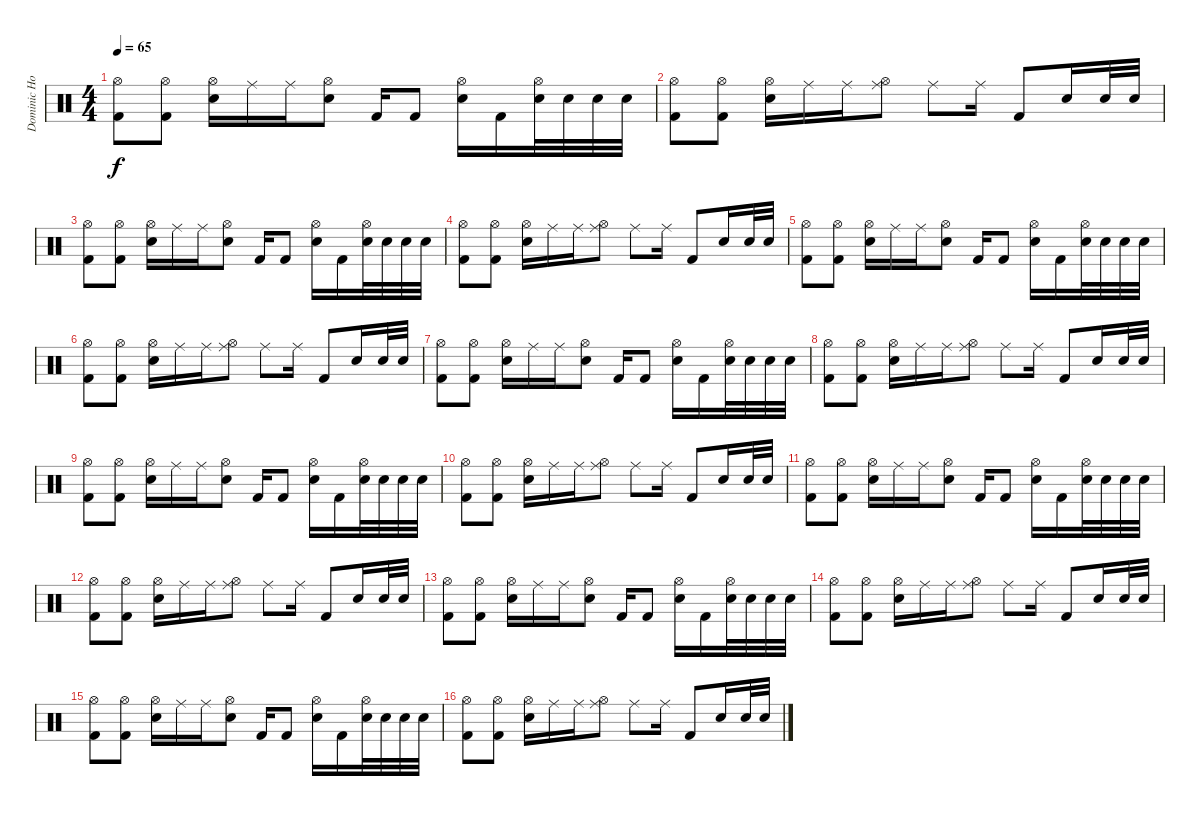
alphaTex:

\track ("Dominic Howard" "Dominic Ho") {instrument percussion}
\staff {score}
\articulation defaults
\ts (4 4)
\tempo 65
\clef neutral
\ks c
("Hi-Hat (open)" "Kick (hit) 2").8{dy f} ("Hi-Hat (open)" "Kick (hit) 2").8 ("Hi-Hat (open)" "Snare (hit) 2").16 "Ride (middle)".16 "Ride (middle)".16 ("Hi-Hat (open)" "Snare (hit) 2").8 "Kick (hit) 2".16 "Kick (hit) 2".8 ("Hi-Hat (open)" "Snare (hit) 2").16 "Kick (hit) 2".16 ("Hi-Hat (open)" "Snare (hit) 2").32 "Snare (hit) 2".32 "Snare (hit) 2".32 "Snare (hit) 2".32 |
("Hi-Hat (open)" "Kick (hit) 2").8 ("Hi-Hat (open)" "Kick (hit) 2").8 ("Hi-Hat (open)" "Snare (hit) 2").16 "Ride (middle)".16 "Ride (middle)".16 ("Hi-Hat (open)" "Ride (middle)").8 "Ride (middle)".8 "Ride (middle)".16 "Kick (hit) 2".8 "Snare (hit) 2".16 "Snare (hit) 2".32 "Snare (hit) 2".32 |
("Hi-Hat (open)" "Kick (hit) 2").8 ("Hi-Hat (open)" "Kick (hit) 2").8 ("Hi-Hat (open)" "Snare (hit) 2").16 "Ride (middle)".16 "Ride (middle)".16 ("Hi-Hat (open)" "Snare (hit) 2").8 "Kick (hit) 2".16 "Kick (hit) 2".8 ("Hi-Hat (open)" "Snare (hit) 2").16 "Kick (hit) 2".16 ("Hi-Hat (open)" "Snare (hit) 2").32 "Snare (hit) 2".32 "Snare (hit) 2".32 "Snare (hit) 2".32 |
("Hi-Hat (open)" "Kick (hit) 2").8 ("Hi-Hat (open)" "Kick (hit) 2").8 ("Hi-Hat (open)" "Snare (hit) 2").16 "Ride (middle)".16 "Ride (middle)".16 ("Hi-Hat (open)" "Ride (middle)").8 "Ride (middle)".8 "Ride (middle)".16 "Kick (hit) 2".8 "Snare (hit) 2".16 "Snare (hit) 2".32 "Snare (hit) 2".32 |
("Hi-Hat (open)" "Kick (hit) 2").8 ("Hi-Hat (open)" "Kick (hit) 2").8 ("Hi-Hat (open)" "Snare (hit) 2").16 "Ride (middle)".16 "Ride (middle)".16 ("Hi-Hat (open)" "Snare (hit) 2").8 "Kick (hit) 2".16 "Kick (hit) 2".8 ("Hi-Hat (open)" "Snare (hit) 2").16 "Kick (hit) 2".16 ("Hi-Hat (open)" "Snare (hit) 2").32 "Snare (hit) 2".32 "Snare (hit) 2".32 "Snare (hit) 2".32 |
("Hi-Hat (open)" "Kick (hit) 2").8 ("Hi-Hat (open)" "Kick (hit) 2").8 ("Hi-Hat (open)" "Snare (hit) 2").16 "Ride (middle)".16 "Ride (middle)".16 ("Hi-Hat (open)" "Ride (middle)").8 "Ride (middle)".8 "Ride (middle)".16 "Kick (hit) 2".8 "Snare (hit) 2".16 "Snare (hit) 2".32 "Snare (hit) 2".32 |
("Hi-Hat (open)" "Kick (hit) 2").8 ("Hi-Hat (open)" "Kick (hit) 2").8 ("Hi-Hat (open)" "Snare (hit) 2").16 "Ride (middle)".16 "Ride (middle)".16 ("Hi-Hat (open)" "Snare (hit) 2").8 "Kick (hit) 2".16 "Kick (hit) 2".8 ("Hi-Hat (open)" "Snare (hit) 2").16 "Kick (hit) 2".16 ("Hi-Hat (open)" "Snare (hit) 2").32 "Snare (hit) 2".32 "Snare (hit) 2".32 "Snare (hit) 2".32 |
("Hi-Hat (open)" "Kick (hit) 2").8 ("Hi-Hat (open)" "Kick (hit) 2").8 ("Hi-Hat (open)" "Snare (hit) 2").16 "Ride (middle)".16 "Ride (middle)".16 ("Hi-Hat (open)" "Ride (middle)").8 "Ride (middle)".8 "Ride (middle)".16 "Kick (hit) 2".8 "Snare (hit) 2".16 "Snare (hit) 2".32 "Snare (hit) 2".32 |
("Hi-Hat (open)" "Kick (hit) 2").8 ("Hi-Hat (open)" "Kick (hit) 2").8 ("Hi-Hat (open)" "Snare (hit) 2").16 "Ride (middle)".16 "Ride (middle)".16 ("Hi-Hat (open)" "Snare (hit) 2").8 "Kick (hit) 2".16 "Kick (hit) 2".8 ("Hi-Hat (open)" "Snare (hit) 2").16 "Kick (hit) 2".16 ("Hi-Hat (open)" "Snare (hit) 2").32 "Snare (hit) 2".32 "Snare (hit) 2".32 "Snare (hit) 2".32 |
("Hi-Hat (open)" "Kick (hit) 2").8 ("Hi-Hat (open)" "Kick (hit) 2").8 ("Hi-Hat (open)" "Snare (hit) 2").16 "Ride (middle)".16 "Ride (middle)".16 ("Hi-Hat (open)" "Ride (middle)").8 "Ride (middle)".8 "Ride (middle)".16 "Kick (hit) 2".8 "Snare (hit) 2".16 "Snare (hit) 2".32 "Snare (hit) 2".32 |
("Hi-Hat (open)" "Kick (hit) 2").8 ("Hi-Hat (open)" "Kick (hit) 2").8 ("Hi-Hat (open)" "Snare (hit) 2").16 "Ride (middle)".16 "Ride (middle)".16 ("Hi-Hat (open)" "Snare (hit) 2").8 "Kick (hit) 2".16 "Kick (hit) 2".8 ("Hi-Hat (open)" "Snare (hit) 2").16 "Kick (hit) 2".16 ("Hi-Hat (open)" "Snare (hit) 2").32 "Snare (hit) 2".32 "Snare (hit) 2".32 "Snare (hit) 2".32 |
("Hi-Hat (open)" "Kick (hit) 2").8 ("Hi-Hat (open)" "Kick (hit) 2").8 ("Hi-Hat (open)" "Snare (hit) 2").16 "Ride (middle)".16 "Ride (middle)".16 ("Hi-Hat (open)" "Ride (middle)").8 "Ride (middle)".8 "Ride (middle)".16 "Kick (hit) 2".8 "Snare (hit) 2".16 "Snare (hit) 2".32 "Snare (hit) 2".32 |
("Hi-Hat (open)" "Kick (hit) 2").8 ("Hi-Hat (open)" "Kick (hit) 2").8 ("Hi-Hat (open)" "Snare (hit) 2").16 "Ride (middle)".16 "Ride (middle)".16 ("Hi-Hat (open)" "Snare (hit) 2").8 "Kick (hit) 2".16 "Kick (hit) 2".8 ("Hi-Hat (open)" "Snare (hit) 2").16 "Kick (hit) 2".16 ("Hi-Hat (open)" "Snare (hit) 2").32 "Snare (hit) 2".32 "Snare (hit) 2".32 "Snare (hit) 2".32 |
("Hi-Hat (open)" "Kick (hit) 2").8 ("Hi-Hat (open)" "Kick (hit) 2").8 ("Hi-Hat (open)" "Snare (hit) 2").16 "Ride (middle)".16 "Ride (middle)".16 ("Hi-Hat (open)" "Ride (middle)").8 "Ride (middle)".8 "Ride (middle)".16 "Kick (hit) 2".8 "Snare (hit) 2".16 "Snare (hit) 2".32 "Snare (hit) 2".32 |
("Hi-Hat (open)" "Kick (hit) 2").8{volume 0} ("Hi-Hat (open)" "Kick (hit) 2").8 ("Hi-Hat (open)" "Snare (hit) 2").16 "Ride (middle)".16 "Ride (middle)".16 ("Hi-Hat (open)" "Snare (hit) 2").8 "Kick (hit) 2".16 "Kick (hit) 2".8 ("Hi-Hat (open)" "Snare (hit) 2").16 "Kick (hit) 2".16 ("Hi-Hat (open)" "Snare (hit) 2").32 "Snare (hit) 2".32 "Snare (hit) 2".32 "Snare (hit) 2".32 |
("Hi-Hat (open)" "Kick (hit) 2").8 ("Hi-Hat (open)" "Kick (hit) 2").8 ("Hi-Hat (open)" "Snare (hit) 2").16 "Ride (middle)".16 "Ride (middle)".16 ("Hi-Hat (open)" "Ride (middle)").8 "Ride (middle)".8 "Ride (middle)".16 "Kick (hit) 2".8 "Snare (hit) 2".16 "Snare (hit) 2".32 "Snare (hit) 2".32
